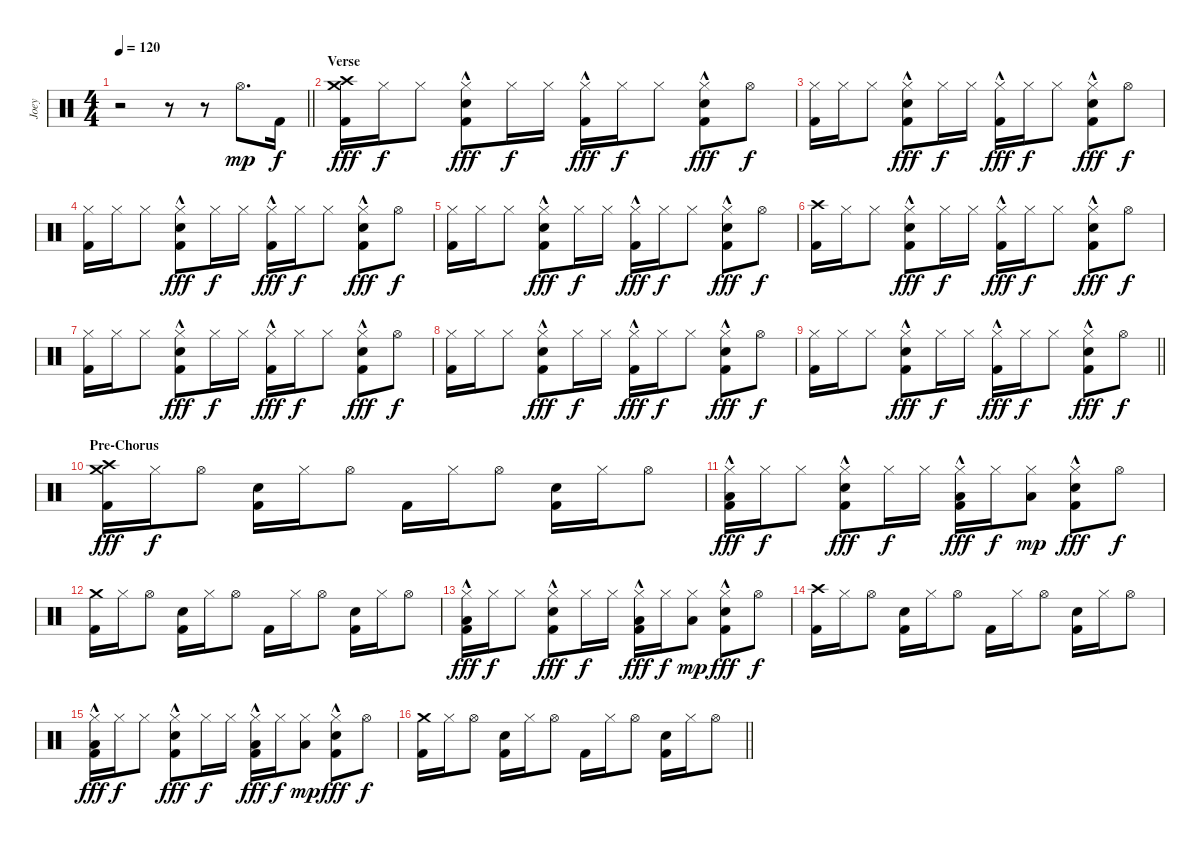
\track ("Joey" "Joey") {instrument percussion}
\staff {score}
\articulation defaults
\ts (4 4)
\section ("" "")
\tempo 120
\clef neutral
\barLineRight lightlight
\ks c
r.2{dy f} r.8 r.8 "Hi-Hat (open)".8{d dy mp} "Kick (hit) 2".16{dy f} |
\section ("" "Verse")
("Crash high (hit)" "Crash medium (hit)" "Kick (hit) 2").16{dy fff} "Hi-Hat (closed)".16{dy f} "Hi-Hat (closed)".8 ("Hi-Hat (closed)"{hac} "Electric Snare (hit)" "Kick (hit) 2").8{dy fff} "Hi-Hat (closed)".16{dy f} "Hi-Hat (closed)".16 ("Hi-Hat (closed)"{hac} "Kick (hit) 2").16{dy fff} "Hi-Hat (closed)".16{dy f} "Hi-Hat (closed)".8 ("Hi-Hat (closed)"{hac} "Electric Snare (hit)" "Kick (hit) 2").8{dy fff} "Hi-Hat (open)".8{dy f} |
("Hi-Hat (closed)" "Kick (hit) 2").16 "Hi-Hat (closed)".16 "Hi-Hat (closed)".8 ("Hi-Hat (closed)"{hac} "Electric Snare (hit)" "Kick (hit) 2").8{dy fff} "Hi-Hat (closed)".16{dy f} "Hi-Hat (closed)".16 ("Hi-Hat (closed)"{hac} "Kick (hit) 2").16{dy fff} "Hi-Hat (closed)".16{dy f} "Hi-Hat (closed)".8 ("Hi-Hat (closed)"{hac} "Electric Snare (hit)" "Kick (hit) 2").8{dy fff} "Hi-Hat (open)".8{dy f} |
("Hi-Hat (closed)" "Kick (hit) 2").16 "Hi-Hat (closed)".16 "Hi-Hat (closed)".8 ("Hi-Hat (closed)"{hac} "Electric Snare (hit)" "Kick (hit) 2").8{dy fff} "Hi-Hat (closed)".16{dy f} "Hi-Hat (closed)".16 ("Hi-Hat (closed)"{hac} "Kick (hit) 2").16{dy fff} "Hi-Hat (closed)".16{dy f} "Hi-Hat (closed)".8 ("Hi-Hat (closed)"{hac} "Electric Snare (hit)" "Kick (hit) 2").8{dy fff} "Hi-Hat (open)".8{dy f} |
("Hi-Hat (closed)" "Kick (hit) 2").16 "Hi-Hat (closed)".16 "Hi-Hat (closed)".8 ("Hi-Hat (closed)"{hac} "Electric Snare (hit)" "Kick (hit) 2").8{dy fff} "Hi-Hat (closed)".16{dy f} "Hi-Hat (closed)".16 ("Hi-Hat (closed)"{hac} "Kick (hit) 2").16{dy fff} "Hi-Hat (closed)".16{dy f} "Hi-Hat (closed)".8 ("Hi-Hat (closed)"{hac} "Electric Snare (hit)" "Kick (hit) 2").8{dy fff} "Hi-Hat (open)".8{dy f} |
("Crash high (hit)" "Kick (hit) 2").16 "Hi-Hat (closed)".16 "Hi-Hat (closed)".8 ("Hi-Hat (closed)"{hac} "Electric Snare (hit)" "Kick (hit) 2").8{dy fff} "Hi-Hat (closed)".16{dy f} "Hi-Hat (closed)".16 ("Hi-Hat (closed)"{hac} "Kick (hit) 2").16{dy fff} "Hi-Hat (closed)".16{dy f} "Hi-Hat (closed)".8 ("Hi-Hat (closed)"{hac} "Electric Snare (hit)" "Kick (hit) 2").8{dy fff} "Hi-Hat (open)".8{dy f} |
("Hi-Hat (closed)" "Kick (hit) 2").16 "Hi-Hat (closed)".16 "Hi-Hat (closed)".8 ("Hi-Hat (closed)"{hac} "Electric Snare (hit)" "Kick (hit) 2").8{dy fff} "Hi-Hat (closed)".16{dy f} "Hi-Hat (closed)".16 ("Hi-Hat (closed)"{hac} "Kick (hit) 2").16{dy fff} "Hi-Hat (closed)".16{dy f} "Hi-Hat (closed)".8 ("Hi-Hat (closed)"{hac} "Electric Snare (hit)" "Kick (hit) 2").8{dy fff} "Hi-Hat (open)".8{dy f} |
("Hi-Hat (closed)" "Kick (hit) 2").16 "Hi-Hat (closed)".16 "Hi-Hat (closed)".8 ("Hi-Hat (closed)"{hac} "Electric Snare (hit)" "Kick (hit) 2").8{dy fff} "Hi-Hat (closed)".16{dy f} "Hi-Hat (closed)".16 ("Hi-Hat (closed)"{hac} "Kick (hit) 2").16{dy fff} "Hi-Hat (closed)".16{dy f} "Hi-Hat (closed)".8 ("Hi-Hat (closed)"{hac} "Electric Snare (hit)" "Kick (hit) 2").8{dy fff} "Hi-Hat (open)".8{dy f} |
\barLineRight lightlight
("Hi-Hat (closed)" "Kick (hit) 2").16 "Hi-Hat (closed)".16 "Hi-Hat (closed)".8 ("Hi-Hat (closed)"{hac} "Electric Snare (hit)" "Kick (hit) 2").8{dy fff} "Hi-Hat (closed)".16{dy f} "Hi-Hat (closed)".16 ("Hi-Hat (closed)"{hac} "Kick (hit) 2").16{dy fff} "Hi-Hat (closed)".16{dy f} "Hi-Hat (closed)".8 ("Hi-Hat (closed)"{hac} "Electric Snare (hit)" "Kick (hit) 2").8{dy fff} "Hi-Hat (open)".8{dy f} |
\section ("" "Pre-Chorus")
("Crash high (hit)" "Crash medium (hit)" "Kick (hit) 2").16{dy fff} "Hi-Hat (closed)".16{dy f} "Hi-Hat (open)".8 ("Electric Snare (hit)" "Kick (hit) 2").16 "Hi-Hat (closed)".16 "Hi-Hat (open)".8 "Kick (hit) 2".16 "Hi-Hat (closed)".16 "Hi-Hat (open)".8 ("Electric Snare (hit)" "Kick (hit) 2").16 "Hi-Hat (closed)".16 "Hi-Hat (open)".8 |
("Hi-Hat (closed)"{hac} "Low Floor Tom (hit)" "Kick (hit) 2"{hac}).16{dy fff} "Hi-Hat (closed)".16{dy f} "Hi-Hat (closed)".8 ("Hi-Hat (closed)" "Electric Snare (hit)" "Kick (hit) 2"{hac}).8{dy fff} "Hi-Hat (closed)".16{dy f} "Hi-Hat (closed)".16 ("Hi-Hat (closed)" "Low Floor Tom (hit)" "Kick (hit) 2"{hac}).16{dy fff} "Hi-Hat (closed)".16{dy f} ("Hi-Hat (closed)" "Low Floor Tom (hit)").8{dy mp} ("Hi-Hat (closed)" "Electric Snare (hit)"{hac} "Kick (hit) 2"{hac}).8{dy fff} "Hi-Hat (open)".8{dy f} |
("Crash medium (hit)" "Kick (hit) 2").16 "Hi-Hat (closed)".16 "Hi-Hat (open)".8 ("Electric Snare (hit)" "Kick (hit) 2").16 "Hi-Hat (closed)".16 "Hi-Hat (open)".8 "Kick (hit) 2".16 "Hi-Hat (closed)".16 "Hi-Hat (open)".8 ("Electric Snare (hit)" "Kick (hit) 2").16 "Hi-Hat (closed)".16 "Hi-Hat (open)".8 |
("Hi-Hat (closed)"{hac} "Low Floor Tom (hit)" "Kick (hit) 2"{hac}).16{dy fff} "Hi-Hat (closed)".16{dy f} "Hi-Hat (closed)".8 ("Hi-Hat (closed)" "Electric Snare (hit)" "Kick (hit) 2"{hac}).8{dy fff} "Hi-Hat (closed)".16{dy f} "Hi-Hat (closed)".16 ("Hi-Hat (closed)" "Low Floor Tom (hit)" "Kick (hit) 2"{hac}).16{dy fff} "Hi-Hat (closed)".16{dy f} ("Hi-Hat (closed)" "Low Floor Tom (hit)").8{dy mp} ("Hi-Hat (closed)" "Electric Snare (hit)"{hac} "Kick (hit) 2"{hac}).8{dy fff} "Hi-Hat (open)".8{dy f} |
("Crash high (hit)" "Kick (hit) 2").16 "Hi-Hat (closed)".16 "Hi-Hat (open)".8 ("Electric Snare (hit)" "Kick (hit) 2").16 "Hi-Hat (closed)".16 "Hi-Hat (open)".8 "Kick (hit) 2".16 "Hi-Hat (closed)".16 "Hi-Hat (open)".8 ("Electric Snare (hit)" "Kick (hit) 2").16 "Hi-Hat (closed)".16 "Hi-Hat (open)".8 |
("Hi-Hat (closed)"{hac} "Low Floor Tom (hit)" "Kick (hit) 2"{hac}).16{dy fff} "Hi-Hat (closed)".16{dy f} "Hi-Hat (closed)".8 ("Hi-Hat (closed)" "Electric Snare (hit)" "Kick (hit) 2"{hac}).8{dy fff} "Hi-Hat (closed)".16{dy f} "Hi-Hat (closed)".16 ("Hi-Hat (closed)" "Low Floor Tom (hit)" "Kick (hit) 2"{hac}).16{dy fff} "Hi-Hat (closed)".16{dy f} ("Hi-Hat (closed)" "Low Floor Tom (hit)").8{dy mp} ("Hi-Hat (closed)" "Electric Snare (hit)"{hac} "Kick (hit) 2"{hac}).8{dy fff} "Hi-Hat (open)".8{dy f} |
\barLineRight lightlight
("Crash medium (hit)" "Kick (hit) 2").16 "Hi-Hat (closed)".16 "Hi-Hat (open)".8 ("Electric Snare (hit)" "Kick (hit) 2").16 "Hi-Hat (closed)".16 "Hi-Hat (open)".8 "Kick (hit) 2".16 "Hi-Hat (closed)".16 "Hi-Hat (open)".8 ("Electric Snare (hit)" "Kick (hit) 2").16 "Hi-Hat (closed)".16 "Hi-Hat (open)".8
